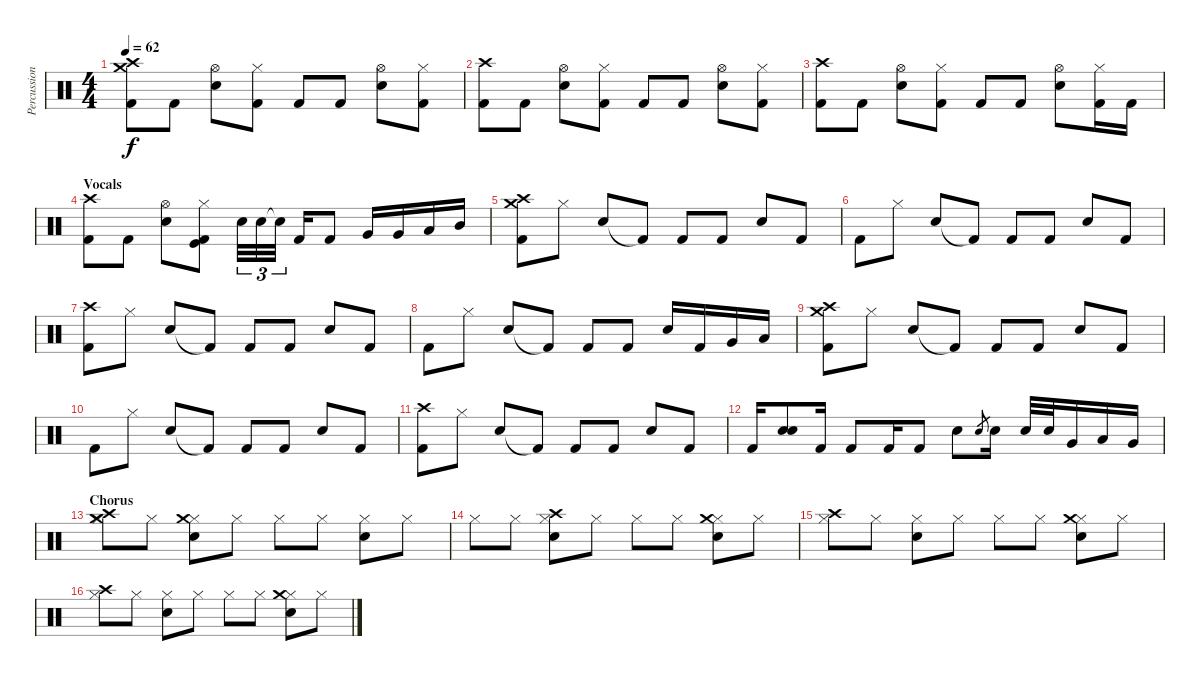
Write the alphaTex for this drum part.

\track ("Percussion" "Percussion") {instrument percussion}
\staff {score}
\articulation defaults
\ts (4 4)
\tempo 62
\clef neutral
\ks c
("Crash high (hit)" "Crash medium (hit)" "Kick (hit) 2").8{dy f} "Kick (hit) 2".8 ("Hi-Hat (open)" "Electric Snare (hit)").8 ("Hi-Hat (closed)" "Kick (hit) 2").8 "Kick (hit) 2".8 "Kick (hit) 2".8 ("Hi-Hat (open)" "Electric Snare (hit)").8 ("Hi-Hat (closed)" "Kick (hit) 2").8 |
("Crash high (hit)" "Kick (hit) 2").8 "Kick (hit) 2".8 ("Hi-Hat (open)" "Electric Snare (hit)").8 ("Hi-Hat (closed)" "Kick (hit) 2").8 "Kick (hit) 2".8 "Kick (hit) 2".8 ("Hi-Hat (open)" "Electric Snare (hit)").8 ("Hi-Hat (closed)" "Kick (hit) 2").8 |
("Crash high (hit)" "Kick (hit) 2").8 "Kick (hit) 2".8 ("Hi-Hat (open)" "Electric Snare (hit)").8 ("Hi-Hat (closed)" "Kick (hit) 2").8 "Kick (hit) 2".8 "Kick (hit) 2".8 ("Hi-Hat (open)" "Electric Snare (hit)").8 ("Hi-Hat (closed)" "Kick (hit) 2").16 "Kick (hit) 2".16 |
\section ("" "Vocals")
("Crash high (hit)" "Kick (hit) 2").8 "Kick (hit) 2".8 ("Hi-Hat (open)" "Electric Snare (hit)").8 ("Hi-Hat (closed)" "Kick (hit)" "Kick (hit) 2").8 "Electric Snare (hit)".32{tu (3 2)} "Electric Snare (hit)".32{tu (3 2)} "Electric Snare (hit)"{t}.32{tu (3 2)} "Kick (hit) 2".16 "Kick (hit) 2".8 "Very Low Tom (hit)".16 "Very Low Tom (hit)".16 "Low Tom (hit)".16 "Mid Tom (hit)".16 |
("Crash high (hit)" "Crash medium (hit)" "Kick (hit) 2").8 "Hi-Hat (closed)".8 "Electric Snare (hit)".8 "Kick (hit) 2"{t}.8 "Kick (hit) 2".8 "Kick (hit) 2".8 "Electric Snare (hit)".8 "Kick (hit) 2".8 |
"Kick (hit) 2".8 "Hi-Hat (closed)".8 "Electric Snare (hit)".8 "Kick (hit) 2"{t}.8 "Kick (hit) 2".8 "Kick (hit) 2".8 "Electric Snare (hit)".8 "Kick (hit) 2".8 |
("Crash high (hit)" "Kick (hit) 2").8 "Hi-Hat (closed)".8 "Electric Snare (hit)".8 "Kick (hit) 2"{t}.8 "Kick (hit) 2".8 "Kick (hit) 2".8 "Electric Snare (hit)".8 "Kick (hit) 2".8 |
"Kick (hit) 2".8 "Hi-Hat (closed)".8 "Electric Snare (hit)".8 "Kick (hit) 2"{t}.8 "Kick (hit) 2".8 "Kick (hit) 2".8 "Electric Snare (hit)".16 "Kick (hit) 2".16 "Very Low Tom (hit)".16 "Low Floor Tom (hit)".16 |
("Crash high (hit)" "Crash medium (hit)" "Kick (hit) 2").8 "Hi-Hat (closed)".8 "Electric Snare (hit)".8 "Kick (hit) 2"{t}.8 "Kick (hit) 2".8 "Kick (hit) 2".8 "Electric Snare (hit)".8 "Kick (hit) 2".8 |
"Kick (hit) 2".8 "Hi-Hat (closed)".8 "Electric Snare (hit)".8 "Kick (hit) 2"{t}.8 "Kick (hit) 2".8 "Kick (hit) 2".8 "Electric Snare (hit)".8 "Kick (hit) 2".8 |
("Crash high (hit)" "Kick (hit) 2").8 "Hi-Hat (closed)".8 "Electric Snare (hit)".8 "Kick (hit) 2"{t}.8 "Kick (hit) 2".8 "Kick (hit) 2".8 "Electric Snare (hit)".8 "Kick (hit) 2".8 |
"Kick (hit) 2".16 ("Electric Snare (hit)" "Electric Snare (hit)").8 "Kick (hit) 2".16 "Kick (hit) 2".8 "Kick (hit) 2".16 "Kick (hit) 2".8 "Electric Snare (hit)".8 "Electric Snare (hit)".8{gr} "Electric Snare (hit)".16 "Electric Snare (hit)".32 "Electric Snare (hit)".32 "Very Low Tom (hit)".16 "Low Tom (hit)".16 "Very Low Tom (hit)".16 |
\section ("" "Chorus")
("Hi-Hat (closed)" "Crash high (hit)" "Crash medium (hit)").8 "Hi-Hat (closed)".8 ("Hi-Hat (closed)" "Crash medium (hit)" "Electric Snare (hit)").8 "Hi-Hat (closed)".8 "Hi-Hat (closed)".8 "Hi-Hat (closed)".8 ("Hi-Hat (closed)" "Electric Snare (hit)").8 "Hi-Hat (closed)".8 |
"Hi-Hat (closed)".8 "Hi-Hat (closed)".8 ("Hi-Hat (closed)" "Crash high (hit)" "Electric Snare (hit)").8 "Hi-Hat (closed)".8 "Hi-Hat (closed)".8 "Hi-Hat (closed)".8 ("Hi-Hat (closed)" "Crash medium (hit)" "Electric Snare (hit)").8 "Hi-Hat (closed)".8 |
("Hi-Hat (closed)" "Crash high (hit)").8 "Hi-Hat (closed)".8 ("Hi-Hat (closed)" "Electric Snare (hit)").8 "Hi-Hat (closed)".8 "Hi-Hat (closed)".8 "Hi-Hat (closed)".8 ("Hi-Hat (closed)" "Crash medium (hit)" "Electric Snare (hit)").8 "Hi-Hat (closed)".8 |
("Hi-Hat (closed)" "Crash high (hit)").8 "Hi-Hat (closed)".8 ("Hi-Hat (closed)" "Electric Snare (hit)").8 "Hi-Hat (closed)".8 "Hi-Hat (closed)".8 "Hi-Hat (closed)".8 ("Hi-Hat (closed)" "Crash medium (hit)" "Electric Snare (hit)").8 "Hi-Hat (closed)".8
